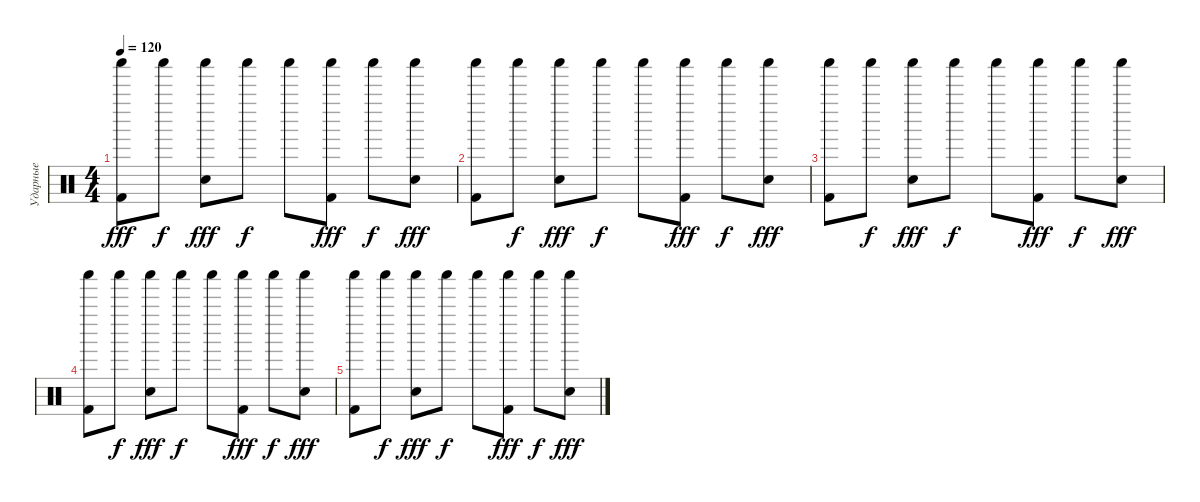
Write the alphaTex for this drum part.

\track ("Ударные" "Ударные") {instrument percussion}
\staff {score}
\articulation defaults
\ts (4 4)
\tempo 120
\clef neutral
\ks c
("Kick (hit) 2" "Shaker (hit)").8{dy fff} "Shaker (hit)".8{dy f} ("Electric Snare (hit)" "Shaker (hit)").8{dy fff} "Shaker (hit)".8{dy f} "Shaker (hit)".8 ("Kick (hit) 2" "Shaker (hit)").8{dy fff} "Shaker (hit)".8{dy f} ("Electric Snare (hit)" "Shaker (hit)").8{dy fff} |
("Kick (hit) 2" "Shaker (hit)").8 "Shaker (hit)".8{dy f} ("Electric Snare (hit)" "Shaker (hit)").8{dy fff} "Shaker (hit)".8{dy f} "Shaker (hit)".8 ("Kick (hit) 2" "Shaker (hit)").8{dy fff} "Shaker (hit)".8{dy f} ("Electric Snare (hit)" "Shaker (hit)").8{dy fff} |
("Kick (hit) 2" "Shaker (hit)").8 "Shaker (hit)".8{dy f} ("Electric Snare (hit)" "Shaker (hit)").8{dy fff} "Shaker (hit)".8{dy f} "Shaker (hit)".8 ("Kick (hit) 2" "Shaker (hit)").8{dy fff} "Shaker (hit)".8{dy f} ("Electric Snare (hit)" "Shaker (hit)").8{dy fff} |
("Kick (hit) 2" "Shaker (hit)").8 "Shaker (hit)".8{dy f} ("Electric Snare (hit)" "Shaker (hit)").8{dy fff} "Shaker (hit)".8{dy f} "Shaker (hit)".8 ("Kick (hit) 2" "Shaker (hit)").8{dy fff} "Shaker (hit)".8{dy f} ("Electric Snare (hit)" "Shaker (hit)").8{dy fff} |
("Kick (hit) 2" "Shaker (hit)").8 "Shaker (hit)".8{dy f} ("Electric Snare (hit)" "Shaker (hit)").8{dy fff} "Shaker (hit)".8{dy f} "Shaker (hit)".8 ("Kick (hit) 2" "Shaker (hit)").8{dy fff} "Shaker (hit)".8{dy f} ("Electric Snare (hit)" "Shaker (hit)").8{dy fff}
